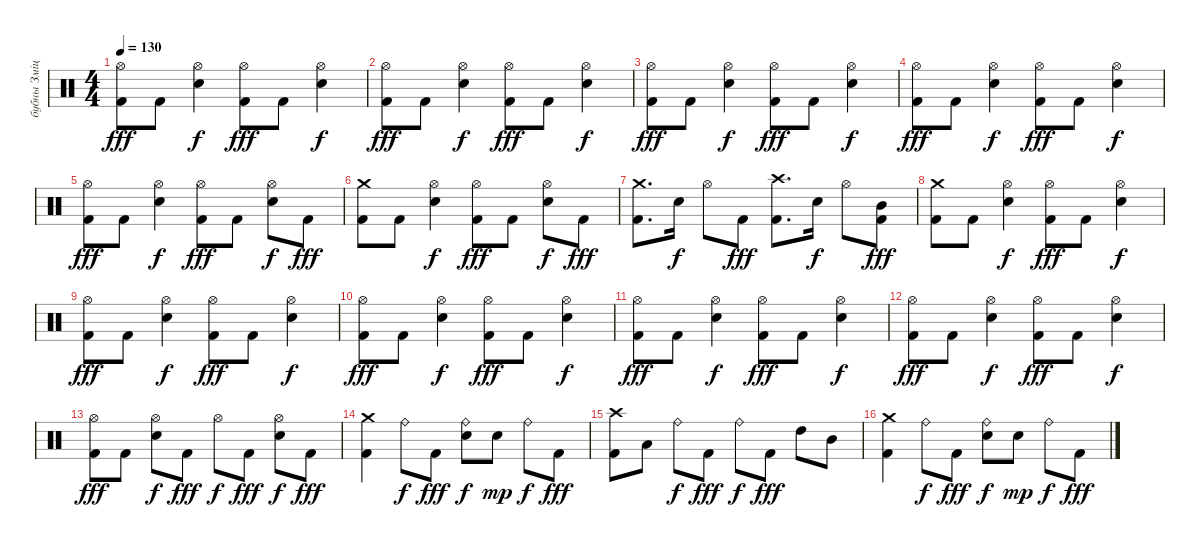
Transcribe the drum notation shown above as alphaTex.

\track ("бубны Змiцер" "бубны Змiц") {instrument percussion}
\staff {score}
\articulation defaults
\ts (4 4)
\tempo 130
\clef neutral
\ks c
("Hi-Hat (open)" "Kick (hit) 2").8{dy fff} "Kick (hit) 2".8 ("Hi-Hat (open)" "Electric Snare (hit)").4{dy f} ("Hi-Hat (open)" "Kick (hit) 2").8{dy fff} "Kick (hit) 2".8 ("Hi-Hat (open)" "Electric Snare (hit)").4{dy f} |
("Hi-Hat (open)" "Kick (hit) 2").8{dy fff} "Kick (hit) 2".8 ("Hi-Hat (open)" "Electric Snare (hit)").4{dy f} ("Hi-Hat (open)" "Kick (hit) 2").8{dy fff} "Kick (hit) 2".8 ("Hi-Hat (open)" "Electric Snare (hit)").4{dy f} |
("Hi-Hat (open)" "Kick (hit) 2").8{dy fff} "Kick (hit) 2".8 ("Hi-Hat (open)" "Electric Snare (hit)").4{dy f} ("Hi-Hat (open)" "Kick (hit) 2").8{dy fff} "Kick (hit) 2".8 ("Hi-Hat (open)" "Electric Snare (hit)").4{dy f} |
("Hi-Hat (open)" "Kick (hit) 2").8{dy fff} "Kick (hit) 2".8 ("Hi-Hat (open)" "Electric Snare (hit)").4{dy f} ("Hi-Hat (open)" "Kick (hit) 2").8{dy fff} "Kick (hit) 2".8 ("Hi-Hat (open)" "Electric Snare (hit)").4{dy f} |
("Hi-Hat (open)" "Kick (hit) 2").8{dy fff} "Kick (hit) 2".8 ("Hi-Hat (open)" "Electric Snare (hit)").4{dy f} ("Hi-Hat (open)" "Kick (hit) 2").8{dy fff} "Kick (hit) 2".8 ("Hi-Hat (open)" "Electric Snare (hit)").8{dy f} "Kick (hit) 2".8{dy fff} |
("Crash medium (hit)" "Kick (hit) 2").8 "Kick (hit) 2".8 ("Hi-Hat (open)" "Electric Snare (hit)").4{dy f} ("Hi-Hat (open)" "Kick (hit) 2").8{dy fff} "Kick (hit) 2".8 ("Hi-Hat (open)" "Electric Snare (hit)").8{dy f} "Kick (hit) 2".8{dy fff} |
("Crash medium (hit)" "Kick (hit) 2").8{d} "Electric Snare (hit)".16{dy f} "Hi-Hat (open)".8 "Kick (hit) 2".8{dy fff} ("Crash high (hit)" "Kick (hit) 2").8{d} "Electric Snare (hit)".16{dy f} "Hi-Hat (open)".8 ("Mid Tom (hit)" "Kick (hit) 2").8{dy fff} |
("Crash medium (hit)" "Kick (hit) 2").8 "Kick (hit) 2".8 ("Hi-Hat (open)" "Electric Snare (hit)").4{dy f} ("Hi-Hat (open)" "Kick (hit) 2").8{dy fff} "Kick (hit) 2".8 ("Hi-Hat (open)" "Electric Snare (hit)").4{dy f} |
("Hi-Hat (open)" "Kick (hit) 2").8{dy fff} "Kick (hit) 2".8 ("Hi-Hat (open)" "Electric Snare (hit)").4{dy f} ("Hi-Hat (open)" "Kick (hit) 2").8{dy fff} "Kick (hit) 2".8 ("Hi-Hat (open)" "Electric Snare (hit)").4{dy f} |
("Hi-Hat (open)" "Kick (hit) 2").8{dy fff} "Kick (hit) 2".8 ("Hi-Hat (open)" "Electric Snare (hit)").4{dy f} ("Hi-Hat (open)" "Kick (hit) 2").8{dy fff} "Kick (hit) 2".8 ("Hi-Hat (open)" "Electric Snare (hit)").4{dy f} |
("Hi-Hat (open)" "Kick (hit) 2").8{dy fff} "Kick (hit) 2".8 ("Hi-Hat (open)" "Electric Snare (hit)").4{dy f} ("Hi-Hat (open)" "Kick (hit) 2").8{dy fff} "Kick (hit) 2".8 ("Hi-Hat (open)" "Electric Snare (hit)").4{dy f} |
("Hi-Hat (open)" "Kick (hit) 2").8{dy fff} "Kick (hit) 2".8 ("Hi-Hat (open)" "Electric Snare (hit)").4{dy f} ("Hi-Hat (open)" "Kick (hit) 2").8{dy fff} "Kick (hit) 2".8 ("Hi-Hat (open)" "Electric Snare (hit)").4{dy f} |
("Hi-Hat (open)" "Kick (hit) 2").8{dy fff} "Kick (hit) 2".8 ("Hi-Hat (open)" "Electric Snare (hit)").8{dy f} "Kick (hit) 2".8{dy fff} "Hi-Hat (open)".8{dy f} "Kick (hit) 2".8{dy fff} ("Hi-Hat (open)" "Electric Snare (hit)").8{dy f} "Kick (hit) 2".8{dy fff} |
("Crash medium (hit)" "Kick (hit) 2").4 "Ride (bell)".8{dy f} "Kick (hit) 2".8{dy fff} ("Ride (bell)" "Electric Snare (hit)").8{dy f} "Electric Snare (hit)".8{dy mp} "Ride (bell)".8{dy f} "Kick (hit) 2".8{dy fff} |
("Crash high (hit)" "Kick (hit) 2").8 "Low Tom (hit)".8 "Ride (bell)".8{dy f} "Kick (hit) 2".8{dy fff} "Ride (bell)".8{dy f} "Kick (hit) 2".8{dy fff} "High Tom (hit)".8 "Mid Tom (hit)".8 |
("Crash medium (hit)" "Kick (hit) 2").4 "Ride (bell)".8{dy f} "Kick (hit) 2".8{dy fff} ("Ride (bell)" "Electric Snare (hit)").8{dy f} "Electric Snare (hit)".8{dy mp} "Ride (bell)".8{dy f} "Kick (hit) 2".8{dy fff}
